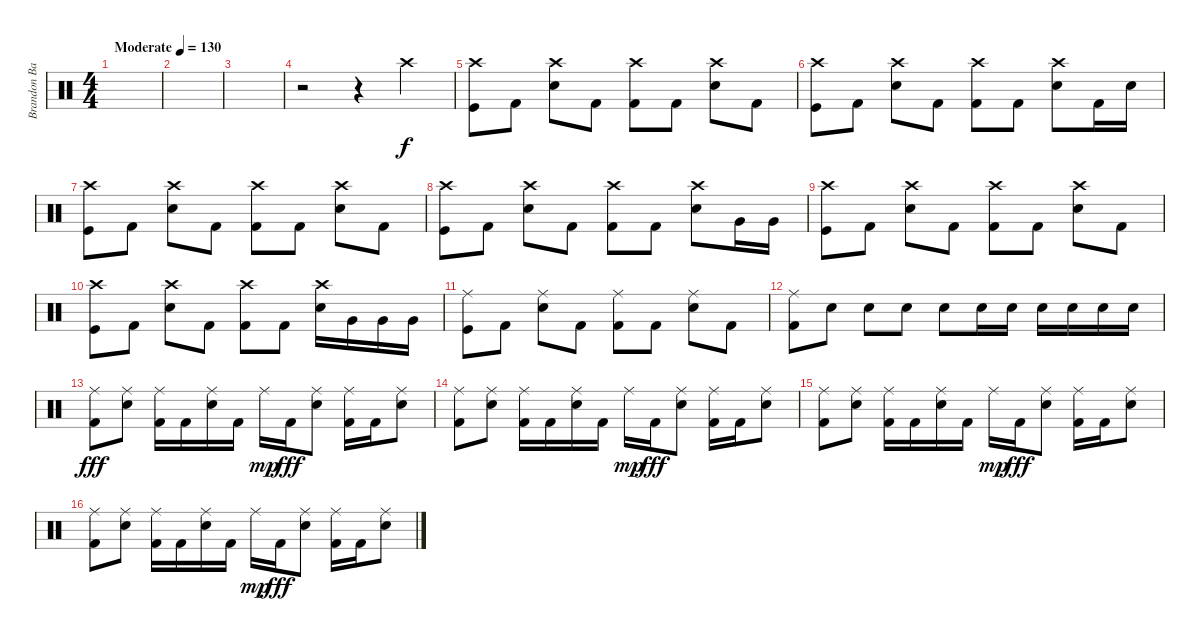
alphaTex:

\track ("Brandon Barnes - Drums" "Brandon Ba") {instrument percussion}
\staff {score}
\articulation defaults
\ts (4 4)
\tempo (130 "Moderate")
\clef neutral
\ks c
|
|
|
r.2 r.4 "Crash high (hit)".4{volume 6} |
("Crash high (hit)" "Kick (hit)").8 "Kick (hit) 2".8 ("Snare (hit) 2" "Crash high (hit)").8 "Kick (hit) 2".8 ("Kick (hit) 2" "Crash high (hit)").8 "Kick (hit) 2".8 ("Electric Snare (hit)" "Crash high (hit)").8 "Kick (hit) 2".8 |
("Crash high (hit)" "Kick (hit)").8 "Kick (hit) 2".8 ("Snare (hit) 2" "Crash high (hit)").8 "Kick (hit) 2".8 ("Kick (hit) 2" "Crash high (hit)").8 "Kick (hit) 2".8 ("Electric Snare (hit)" "Crash high (hit)").8 "Kick (hit) 2".16 "Electric Snare (hit)".16 |
("Crash high (hit)" "Kick (hit)").8 "Kick (hit) 2".8 ("Snare (hit) 2" "Crash high (hit)").8 "Kick (hit) 2".8 ("Kick (hit) 2" "Crash high (hit)").8 "Kick (hit) 2".8 ("Electric Snare (hit)" "Crash high (hit)").8 "Kick (hit) 2".8 |
("Crash high (hit)" "Kick (hit)").8 "Kick (hit) 2".8 ("Snare (hit) 2" "Crash high (hit)").8 "Kick (hit) 2".8 ("Kick (hit) 2" "Crash high (hit)").8 "Kick (hit) 2".8 ("Electric Snare (hit)" "Crash high (hit)").8 "Very Low Tom (hit)".16 "Very Low Tom (hit)".16 |
("Crash high (hit)" "Kick (hit)").8 "Kick (hit) 2".8 ("Snare (hit) 2" "Crash high (hit)").8 "Kick (hit) 2".8 ("Kick (hit) 2" "Crash high (hit)").8 "Kick (hit) 2".8 ("Electric Snare (hit)" "Crash high (hit)").8 "Kick (hit) 2".8 |
("Crash high (hit)" "Kick (hit)").8 "Kick (hit) 2".8 ("Snare (hit) 2" "Crash high (hit)").8 "Kick (hit) 2".8 ("Kick (hit) 2" "Crash high (hit)").8 "Kick (hit) 2".8 ("Electric Snare (hit)" "Crash high (hit)").16 "Very Low Tom (hit)".16 "Very Low Tom (hit)".16 "Very Low Tom (hit)".16 |
("Ride (middle)" "Kick (hit)").8 "Kick (hit) 2".8 ("Snare (hit) 2" "Ride (middle)").8 "Kick (hit) 2".8 ("Kick (hit) 2" "Ride (middle)").8 "Kick (hit) 2".8 ("Electric Snare (hit)" "Ride (middle)").8 "Kick (hit) 2".8 |
("Kick (hit) 2" "Ride (middle)").8 "Electric Snare (hit)".8 "Snare (hit) 2".8 "Snare (hit) 2".8 "Snare (hit) 2".8 "Snare (hit) 2".16 "Snare (hit) 2".16 "Snare (hit) 2".16 "Snare (hit) 2".16 "Snare (hit) 2".16 "Snare (hit) 2".16 |
("Ride (middle)" "Kick (hit) 2").8{dy fff} ("Ride (middle)" "Snare (hit) 2").8 ("Ride (middle)" "Kick (hit) 2").16 "Kick (hit) 2".16 ("Ride (middle)" "Snare (hit) 2").16 "Kick (hit) 2".16 "Ride (middle)".16{dy mp} "Kick (hit) 2".16{dy fff} ("Ride (middle)" "Snare (hit) 2").8 ("Ride (middle)" "Kick (hit) 2").16 "Kick (hit) 2".16 ("Ride (middle)" "Snare (hit) 2").8 |
("Ride (middle)" "Kick (hit) 2").8 ("Ride (middle)" "Snare (hit) 2").8 ("Ride (middle)" "Kick (hit) 2").16 "Kick (hit) 2".16 ("Ride (middle)" "Snare (hit) 2").16 "Kick (hit) 2".16 "Ride (middle)".16{dy mp} "Kick (hit) 2".16{dy fff} ("Ride (middle)" "Snare (hit) 2").8 ("Ride (middle)" "Kick (hit) 2").16 "Kick (hit) 2".16 ("Ride (middle)" "Snare (hit) 2").8 |
("Ride (middle)" "Kick (hit) 2").8 ("Ride (middle)" "Snare (hit) 2").8 ("Ride (middle)" "Kick (hit) 2").16 "Kick (hit) 2".16 ("Ride (middle)" "Snare (hit) 2").16 "Kick (hit) 2".16 "Ride (middle)".16{dy mp} "Kick (hit) 2".16{dy fff} ("Ride (middle)" "Snare (hit) 2").8 ("Ride (middle)" "Kick (hit) 2").16 "Kick (hit) 2".16 ("Ride (middle)" "Snare (hit) 2").8 |
("Ride (middle)" "Kick (hit) 2").8 ("Ride (middle)" "Snare (hit) 2").8 ("Ride (middle)" "Kick (hit) 2").16 "Kick (hit) 2".16 ("Ride (middle)" "Snare (hit) 2").16 "Kick (hit) 2".16 "Ride (middle)".16{dy mp} "Kick (hit) 2".16{dy fff} ("Ride (middle)" "Snare (hit) 2").8 ("Ride (middle)" "Kick (hit) 2").16 "Kick (hit) 2".16 ("Ride (middle)" "Snare (hit) 2").8
